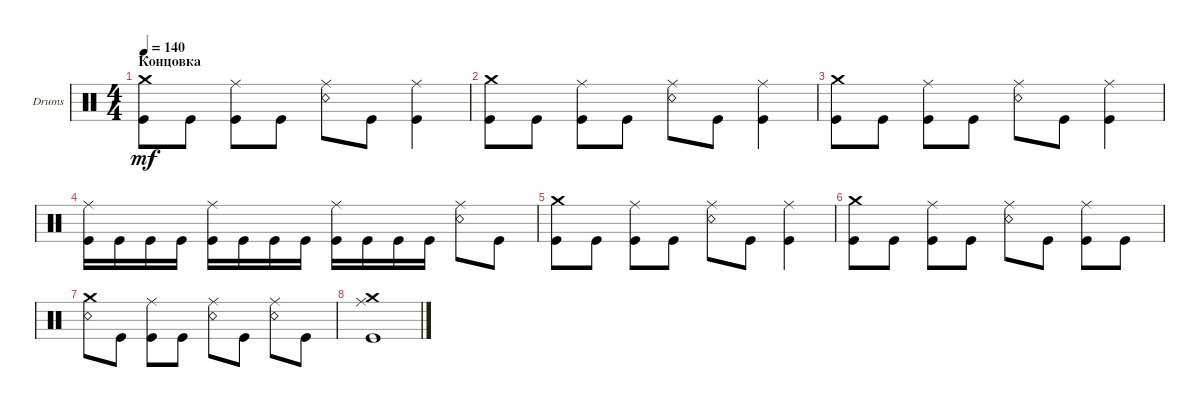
\defaultSystemsLayout 4
\bracketExtendMode groupsimilarinstruments
\firstSystemTrackNameOrientation horizontal
\otherSystemsTrackNameOrientation horizontal
\track ("Drumkit" "Drums") {instrument percussion}
\staff {score}
\articulation defaults
\ts (4 4)
\section ("" "Концовка")
\tempo 140
\clef neutral
\ks c
("Kick (hit)" "Crash medium (hit)").8{dy mf} "Kick (hit)".8 ("Kick (hit)" "Ride (middle)").8 "Kick (hit)".8 ("Snare (rim shot)" "Ride (middle)").8 "Kick (hit)".8 ("Kick (hit)" "Ride (middle)").4 |
("Kick (hit)" "Crash medium (hit)").8 "Kick (hit)".8 ("Kick (hit)" "Ride (middle)").8 "Kick (hit)".8 ("Snare (rim shot)" "Ride (middle)").8 "Kick (hit)".8 ("Kick (hit)" "Ride (middle)").4 |
("Kick (hit)" "Crash medium (hit)").8 "Kick (hit)".8 ("Kick (hit)" "Ride (middle)").8 "Kick (hit)".8 ("Snare (rim shot)" "Ride (middle)").8 "Kick (hit)".8 ("Kick (hit)" "Ride (middle)").4 |
("Kick (hit)" "Ride (middle)").16 "Kick (hit)".16 "Kick (hit)".16 "Kick (hit)".16 ("Kick (hit)" "Ride (middle)").16 "Kick (hit)".16 "Kick (hit)".16 "Kick (hit)".16 ("Kick (hit)" "Ride (middle)").16 "Kick (hit)".16 "Kick (hit)".16 "Kick (hit)".16 ("Snare (rim shot)" "Ride (middle)").8 "Kick (hit)".8 |
("Kick (hit)" "Crash medium (hit)").8 "Kick (hit)".8 ("Kick (hit)" "Ride (middle)").8 "Kick (hit)".8 ("Snare (rim shot)" "Ride (middle)").8 "Kick (hit)".8 ("Kick (hit)" "Ride (middle)").4 |
("Kick (hit)" "Crash medium (hit)").8 "Kick (hit)".8 ("Kick (hit)" "Ride (middle)").8 "Kick (hit)".8 ("Snare (rim shot)" "Ride (middle)").8 "Kick (hit)".8 ("Kick (hit)" "Ride (middle)").8 "Kick (hit)".8 |
("Crash medium (hit)" "Snare (rim shot)").8 "Kick (hit)".8 ("Kick (hit)" "Ride (middle)").8 "Kick (hit)".8 ("Snare (rim shot)" "Ride (middle)").8 "Kick (hit)".8 ("Snare (rim shot)" "Ride (middle)").8 "Kick (hit)".8 |
("Kick (hit)" "Ride (middle)" "Crash medium (hit)").1
